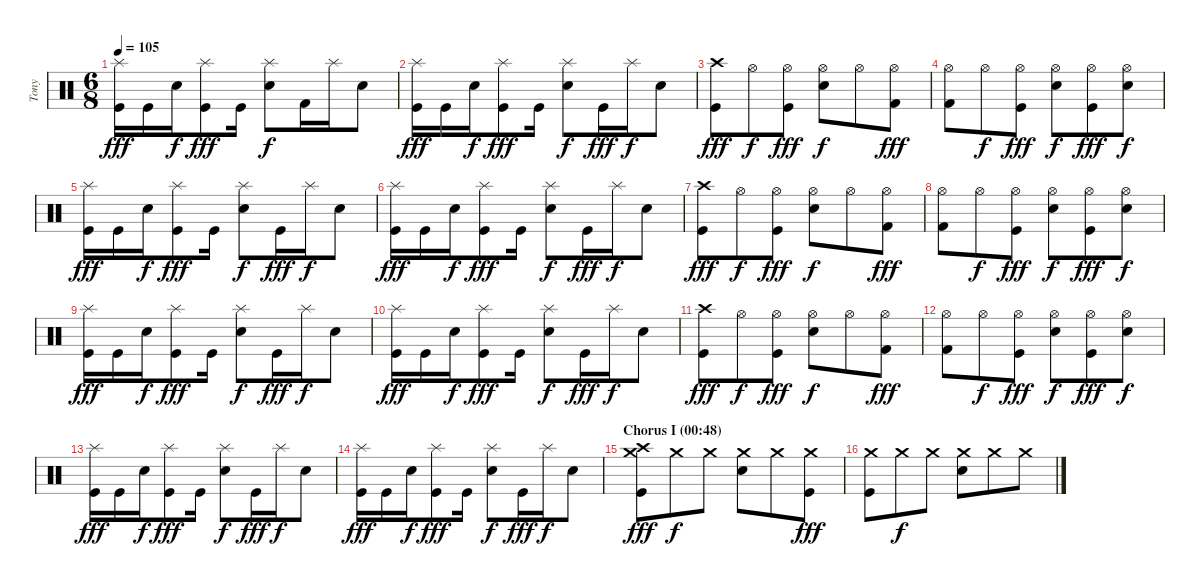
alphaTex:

\track ("Tony" "Tony") {instrument percussion}
\staff {score}
\articulation defaults
\ts (6 8)
\tempo 105
\clef neutral
\ks c
("Splash (hit)" "Kick (hit)").16{dy fff} "Kick (hit)".16 "Snare (hit) 2".16{dy f} ("Splash (hit)" "Kick (hit)").8{dy fff} "Kick (hit)".16 ("Splash (hit)" "Snare (hit) 2").8{dy f} "Kick (hit) 2".16 "Splash (hit)".16 "Snare (hit) 2".8 |
("Splash (hit)" "Kick (hit)").16{dy fff} "Kick (hit)".16 "Snare (hit) 2".16{dy f} ("Splash (hit)" "Kick (hit)").8{dy fff} "Kick (hit)".16 ("Splash (hit)" "Snare (hit) 2").8{dy f} "Kick (hit)".16{dy fff} "Splash (hit)".16{dy f} "Snare (hit) 2".8 |
("Crash high (hit)" "Kick (hit)").8{dy fff} "Hi-Hat (open)".8{dy f} ("Hi-Hat (open)" "Kick (hit)").8{dy fff} ("Hi-Hat (open)" "Snare (hit) 2").8{dy f} "Hi-Hat (open)".8 ("Hi-Hat (open)" "Kick (hit) 2").8{dy fff} |
("Hi-Hat (open)" "Kick (hit) 2").8 "Hi-Hat (open)".8{dy f} ("Hi-Hat (open)" "Kick (hit)").8{dy fff} ("Hi-Hat (open)" "Snare (hit) 2").8{dy f} ("Hi-Hat (open)" "Kick (hit)").8{dy fff} ("Hi-Hat (open)" "Snare (hit) 2").8{dy f} |
("Splash (hit)" "Kick (hit)").16{dy fff} "Kick (hit)".16 "Snare (hit) 2".16{dy f} ("Splash (hit)" "Kick (hit)").8{dy fff} "Kick (hit)".16 ("Splash (hit)" "Snare (hit) 2").8{dy f} "Kick (hit)".16{dy fff} "Splash (hit)".16{dy f} "Snare (hit) 2".8 |
("Splash (hit)" "Kick (hit)").16{dy fff} "Kick (hit)".16 "Snare (hit) 2".16{dy f} ("Splash (hit)" "Kick (hit)").8{dy fff} "Kick (hit)".16 ("Splash (hit)" "Snare (hit) 2").8{dy f} "Kick (hit)".16{dy fff} "Splash (hit)".16{dy f} "Snare (hit) 2".8 |
("Crash high (hit)" "Kick (hit)").8{dy fff} "Hi-Hat (open)".8{dy f} ("Hi-Hat (open)" "Kick (hit)").8{dy fff} ("Hi-Hat (open)" "Snare (hit) 2").8{dy f} "Hi-Hat (open)".8 ("Hi-Hat (open)" "Kick (hit) 2").8{dy fff} |
("Hi-Hat (open)" "Kick (hit) 2").8 "Hi-Hat (open)".8{dy f} ("Hi-Hat (open)" "Kick (hit)").8{dy fff} ("Hi-Hat (open)" "Snare (hit) 2").8{dy f} ("Hi-Hat (open)" "Kick (hit)").8{dy fff} ("Hi-Hat (open)" "Snare (hit) 2").8{dy f} |
("Splash (hit)" "Kick (hit)").16{dy fff} "Kick (hit)".16 "Snare (hit) 2".16{dy f} ("Splash (hit)" "Kick (hit)").8{dy fff} "Kick (hit)".16 ("Splash (hit)" "Snare (hit) 2").8{dy f} "Kick (hit)".16{dy fff} "Splash (hit)".16{dy f} "Snare (hit) 2".8 |
("Splash (hit)" "Kick (hit)").16{dy fff} "Kick (hit)".16 "Snare (hit) 2".16{dy f} ("Splash (hit)" "Kick (hit)").8{dy fff} "Kick (hit)".16 ("Splash (hit)" "Snare (hit) 2").8{dy f} "Kick (hit)".16{dy fff} "Splash (hit)".16{dy f} "Snare (hit) 2".8 |
("Crash high (hit)" "Kick (hit)").8{dy fff} "Hi-Hat (open)".8{dy f} ("Hi-Hat (open)" "Kick (hit)").8{dy fff} ("Hi-Hat (open)" "Snare (hit) 2").8{dy f} "Hi-Hat (open)".8 ("Hi-Hat (open)" "Kick (hit) 2").8{dy fff} |
("Hi-Hat (open)" "Kick (hit) 2").8 "Hi-Hat (open)".8{dy f} ("Hi-Hat (open)" "Kick (hit)").8{dy fff} ("Hi-Hat (open)" "Snare (hit) 2").8{dy f} ("Hi-Hat (open)" "Kick (hit)").8{dy fff} ("Hi-Hat (open)" "Snare (hit) 2").8{dy f} |
("Splash (hit)" "Kick (hit)").16{dy fff} "Kick (hit)".16 "Snare (hit) 2".16{dy f} ("Splash (hit)" "Kick (hit)").8{dy fff} "Kick (hit)".16 ("Splash (hit)" "Snare (hit) 2").8{dy f} "Kick (hit)".16{dy fff} "Splash (hit)".16{dy f} "Snare (hit) 2".8 |
("Splash (hit)" "Kick (hit)").16{dy fff} "Kick (hit)".16 "Snare (hit) 2".16{dy f} ("Splash (hit)" "Kick (hit)").8{dy fff} "Kick (hit)".16 ("Splash (hit)" "Snare (hit) 2").8{dy f} "Kick (hit)".16{dy fff} "Splash (hit)".16{dy f} "Snare (hit) 2".8 |
\section ("" "Chorus I (00:48)")
("Crash medium (hit)" "Crash high (hit)" "Kick (hit)").8{dy fff} "Crash medium (hit)".8{dy f} "Crash medium (hit)".8 ("Crash medium (hit)" "Snare (hit) 2").8 "Crash medium (hit)".8 ("Crash medium (hit)" "Kick (hit)").8{dy fff} |
("Crash medium (hit)" "Kick (hit)").8 "Crash medium (hit)".8{dy f} "Crash medium (hit)".8 ("Crash medium (hit)" "Snare (hit) 2").8 "Crash medium (hit)".8 "Crash medium (hit)".8
